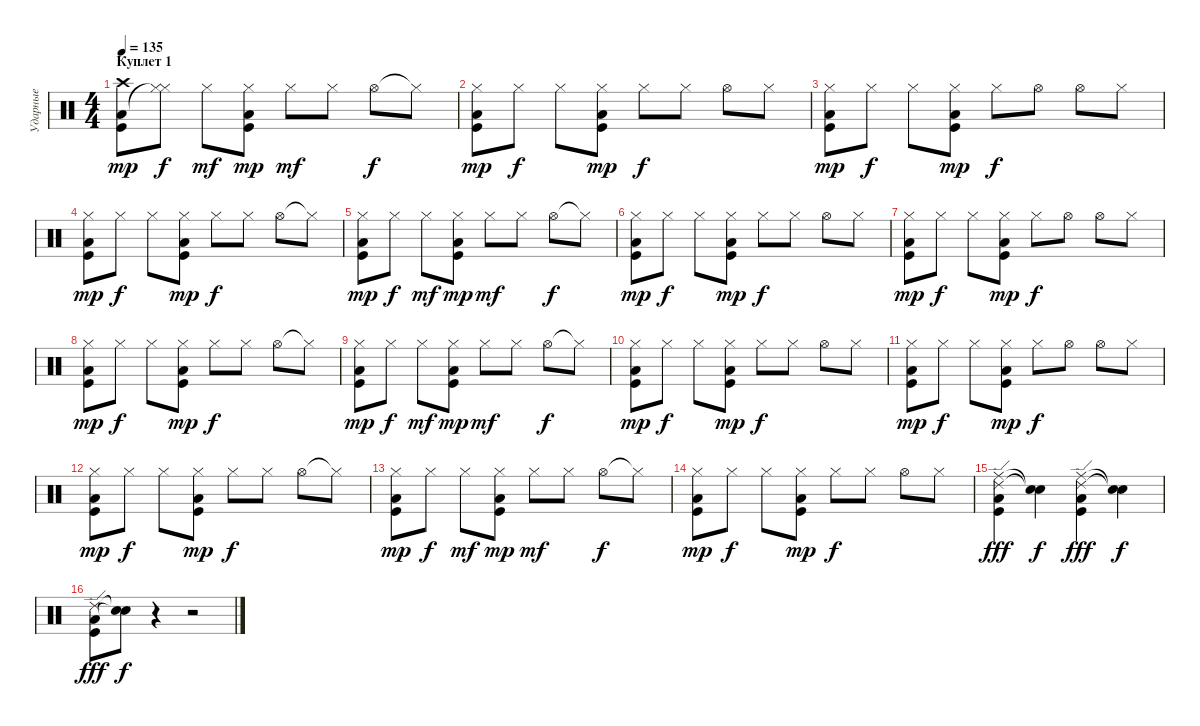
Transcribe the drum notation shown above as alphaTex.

\track ("Ударные" "Ударные") {instrument percussion}
\staff {score}
\articulation defaults
\ts (4 4)
\section ("" "Куплет 1")
\tempo 135
\clef neutral
\ks c
("Crash high (hit)" "Low Tom (hit)" "Kick (hit)").8{dy mp} ("Hi-Hat (closed)" "Hi-Hat (closed)"{t}).8{dy f} "Hi-Hat (closed)".8{dy mf} ("Hi-Hat (closed)" "Low Tom (hit)" "Kick (hit)").8{dy mp} "Hi-Hat (closed)".8{dy mf} "Hi-Hat (closed)".8 "Hi-Hat (open)".8{dy f} "Hi-Hat (closed)"{t}.8 |
("Hi-Hat (closed)" "Low Tom (hit)" "Kick (hit)").8{dy mp} "Hi-Hat (closed)".8{dy f} "Hi-Hat (closed)".8 ("Hi-Hat (closed)" "Low Tom (hit)" "Kick (hit)").8{dy mp} "Hi-Hat (closed)".8{dy f} "Hi-Hat (closed)".8 "Hi-Hat (open)".8 "Hi-Hat (closed)".8 |
("Hi-Hat (closed)" "Low Tom (hit)" "Kick (hit)").8{dy mp} "Hi-Hat (closed)".8{dy f} "Hi-Hat (closed)".8 ("Hi-Hat (closed)" "Low Tom (hit)" "Kick (hit)").8{dy mp} "Hi-Hat (closed)".8{dy f} "Hi-Hat (open)".8 "Hi-Hat (open)".8 "Hi-Hat (closed)".8 |
("Hi-Hat (closed)" "Low Tom (hit)" "Kick (hit)").8{dy mp} "Hi-Hat (closed)".8{dy f} "Hi-Hat (closed)".8 ("Hi-Hat (closed)" "Low Tom (hit)" "Kick (hit)").8{dy mp} "Hi-Hat (closed)".8{dy f} "Hi-Hat (closed)".8 "Hi-Hat (open)".8 "Hi-Hat (closed)"{t}.8 |
("Hi-Hat (closed)" "Low Tom (hit)" "Kick (hit)").8{dy mp} "Hi-Hat (closed)".8{dy f} "Hi-Hat (closed)".8{dy mf} ("Hi-Hat (closed)" "Low Tom (hit)" "Kick (hit)").8{dy mp} "Hi-Hat (closed)".8{dy mf} "Hi-Hat (closed)".8 "Hi-Hat (open)".8{dy f} "Hi-Hat (closed)"{t}.8 |
("Hi-Hat (closed)" "Low Tom (hit)" "Kick (hit)").8{dy mp} "Hi-Hat (closed)".8{dy f} "Hi-Hat (closed)".8 ("Hi-Hat (closed)" "Low Tom (hit)" "Kick (hit)").8{dy mp} "Hi-Hat (closed)".8{dy f} "Hi-Hat (closed)".8 "Hi-Hat (open)".8 "Hi-Hat (closed)".8 |
("Hi-Hat (closed)" "Low Tom (hit)" "Kick (hit)").8{dy mp} "Hi-Hat (closed)".8{dy f} "Hi-Hat (closed)".8 ("Hi-Hat (closed)" "Low Tom (hit)" "Kick (hit)").8{dy mp} "Hi-Hat (closed)".8{dy f} "Hi-Hat (open)".8 "Hi-Hat (open)".8 "Hi-Hat (closed)".8 |
("Hi-Hat (closed)" "Low Tom (hit)" "Kick (hit)").8{dy mp} "Hi-Hat (closed)".8{dy f} "Hi-Hat (closed)".8 ("Hi-Hat (closed)" "Low Tom (hit)" "Kick (hit)").8{dy mp} "Hi-Hat (closed)".8{dy f} "Hi-Hat (closed)".8 "Hi-Hat (open)".8 "Hi-Hat (closed)"{t}.8 |
("Hi-Hat (closed)" "Low Tom (hit)" "Kick (hit)").8{dy mp} "Hi-Hat (closed)".8{dy f} "Hi-Hat (closed)".8{dy mf} ("Hi-Hat (closed)" "Low Tom (hit)" "Kick (hit)").8{dy mp} "Hi-Hat (closed)".8{dy mf} "Hi-Hat (closed)".8 "Hi-Hat (open)".8{dy f} "Hi-Hat (closed)"{t}.8 |
("Hi-Hat (closed)" "Low Tom (hit)" "Kick (hit)").8{dy mp} "Hi-Hat (closed)".8{dy f} "Hi-Hat (closed)".8 ("Hi-Hat (closed)" "Low Tom (hit)" "Kick (hit)").8{dy mp} "Hi-Hat (closed)".8{dy f} "Hi-Hat (closed)".8 "Hi-Hat (open)".8 "Hi-Hat (closed)".8 |
("Hi-Hat (closed)" "Low Tom (hit)" "Kick (hit)").8{dy mp} "Hi-Hat (closed)".8{dy f} "Hi-Hat (closed)".8 ("Hi-Hat (closed)" "Low Tom (hit)" "Kick (hit)").8{dy mp} "Hi-Hat (closed)".8{dy f} "Hi-Hat (open)".8 "Hi-Hat (open)".8 "Hi-Hat (closed)".8 |
("Hi-Hat (closed)" "Low Tom (hit)" "Kick (hit)").8{dy mp} "Hi-Hat (closed)".8{dy f} "Hi-Hat (closed)".8 ("Hi-Hat (closed)" "Low Tom (hit)" "Kick (hit)").8{dy mp} "Hi-Hat (closed)".8{dy f} "Hi-Hat (closed)".8 "Hi-Hat (open)".8 "Hi-Hat (closed)"{t}.8 |
("Hi-Hat (closed)" "Low Tom (hit)" "Kick (hit)").8{dy mp} "Hi-Hat (closed)".8{dy f} "Hi-Hat (closed)".8{dy mf} ("Hi-Hat (closed)" "Low Tom (hit)" "Kick (hit)").8{dy mp} "Hi-Hat (closed)".8{dy mf} "Hi-Hat (closed)".8 "Hi-Hat (open)".8{dy f} "Hi-Hat (closed)"{t}.8 |
("Hi-Hat (closed)" "Low Tom (hit)" "Kick (hit)").8{dy mp} "Hi-Hat (closed)".8{dy f} "Hi-Hat (closed)".8 ("Hi-Hat (closed)" "Low Tom (hit)" "Kick (hit)").8{dy mp} "Hi-Hat (closed)".8{dy f} "Hi-Hat (closed)".8 "Hi-Hat (open)".8 "Hi-Hat (closed)".8 |
("Ride (edge) 2" "Ride (middle)" "Low Tom (hit)" "Kick (hit)").4{dy fff} ("Snare (hit)"{t} "Snare (hit)"{t}).4{dy f} ("Ride (edge) 2" "Ride (middle)" "Low Tom (hit)" "Kick (hit)").4{dy fff} ("Snare (hit)"{t} "Snare (hit)"{t}).4{dy f} |
("Ride (edge) 2" "Low Tom (hit)" "Kick (hit)").8{dy fff} ("Snare (hit)"{t} "Snare (hit)"{t}).8{dy f} r.4 r.2
